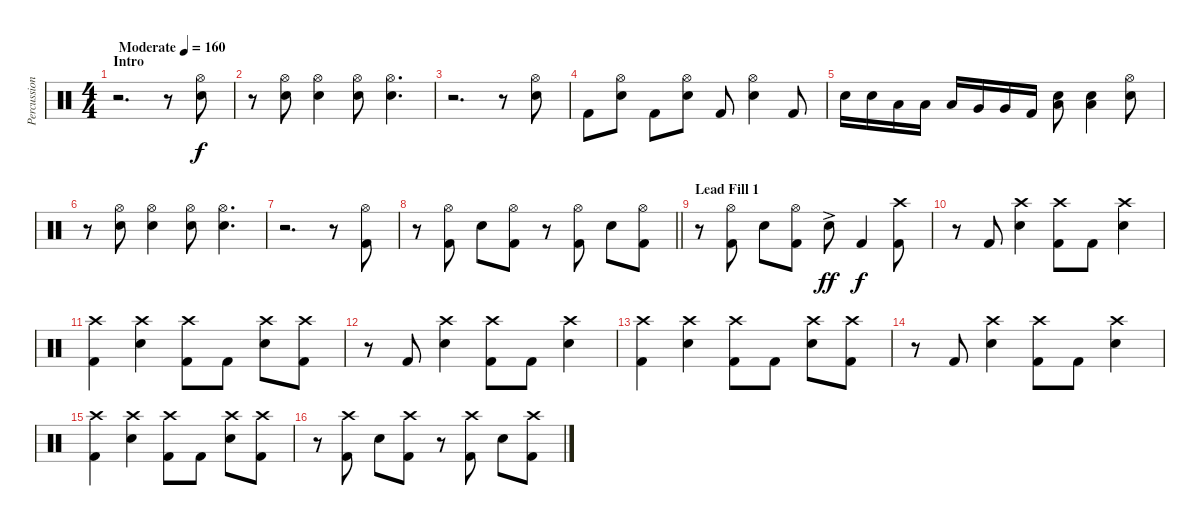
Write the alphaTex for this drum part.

\track ("Percussion" "Percussion") {instrument percussion}
\staff {score}
\articulation defaults
\ts (4 4)
\section ("" "Intro")
\tempo (160 "Moderate")
\clef neutral
\ks c
r.2{d dy f} r.8 ("Hi-Hat (open)" "Electric Snare (hit)").8 |
r.8 ("Hi-Hat (open)" "Electric Snare (hit)").8 ("Hi-Hat (open)" "Electric Snare (hit)").4 ("Hi-Hat (open)" "Electric Snare (hit)").8 ("Hi-Hat (open)" "Electric Snare (hit)").4{d} |
r.2{d} r.8 ("Hi-Hat (open)" "Electric Snare (hit)").8 |
"Kick (hit) 2".8 ("Hi-Hat (open)" "Electric Snare (hit)").8 "Kick (hit) 2".8 ("Hi-Hat (open)" "Electric Snare (hit)").8 "Kick (hit) 2".8 ("Hi-Hat (open)" "Electric Snare (hit)").4 "Kick (hit) 2".8 |
"Electric Snare (hit)".16 "Electric Snare (hit)".16 "Low Tom (hit)".16 "Low Tom (hit)".16 "Low Tom (hit)".16 "Very Low Tom (hit)".16 "Very Low Tom (hit)".16 "Kick (hit) 2".16 ("Electric Snare (hit)" "Low Floor Tom (hit)").8 ("Electric Snare (hit)" "Low Floor Tom (hit)").4 ("Hi-Hat (open)" "Electric Snare (hit)").8 |
r.8 ("Hi-Hat (open)" "Electric Snare (hit)").8 ("Hi-Hat (open)" "Electric Snare (hit)").4 ("Hi-Hat (open)" "Electric Snare (hit)").8 ("Hi-Hat (open)" "Electric Snare (hit)").4{d} |
r.2{d} r.8 ("Hi-Hat (open)" "Kick (hit) 2").8 |
\barLineRight lightlight
r.8 ("Hi-Hat (open)" "Kick (hit) 2").8 "Electric Snare (hit)".8 ("Hi-Hat (open)" "Kick (hit) 2").8 r.8 ("Hi-Hat (open)" "Kick (hit) 2").8 "Electric Snare (hit)".8 ("Hi-Hat (open)" "Kick (hit) 2").8 |
\section ("" "Lead Fill 1")
r.8 ("Hi-Hat (open)" "Kick (hit) 2").8 "Electric Snare (hit)".8 ("Hi-Hat (open)" "Kick (hit) 2").8 "Electric Snare (hit)"{ac}.8{dy ff} "Kick (hit) 2".4{dy f} ("Crash high (hit)" "Kick (hit) 2").8 |
r.8 "Kick (hit) 2".8 ("Crash high (hit)" "Electric Snare (hit)").4 ("Crash high (hit)" "Kick (hit) 2").8 "Kick (hit) 2".8 ("Crash high (hit)" "Electric Snare (hit)").4 |
("Crash high (hit)" "Kick (hit) 2").4 ("Crash high (hit)" "Electric Snare (hit)").4 ("Crash high (hit)" "Kick (hit) 2").8 "Kick (hit) 2".8 ("Crash high (hit)" "Electric Snare (hit)").8 ("Crash high (hit)" "Kick (hit) 2").8 |
r.8 "Kick (hit) 2".8 ("Crash high (hit)" "Electric Snare (hit)").4 ("Crash high (hit)" "Kick (hit) 2").8 "Kick (hit) 2".8 ("Crash high (hit)" "Electric Snare (hit)").4 |
("Crash high (hit)" "Kick (hit) 2").4 ("Crash high (hit)" "Electric Snare (hit)").4 ("Crash high (hit)" "Kick (hit) 2").8 "Kick (hit) 2".8 ("Crash high (hit)" "Electric Snare (hit)").8 ("Crash high (hit)" "Kick (hit) 2").8 |
r.8 "Kick (hit) 2".8 ("Crash high (hit)" "Electric Snare (hit)").4 ("Crash high (hit)" "Kick (hit) 2").8 "Kick (hit) 2".8 ("Crash high (hit)" "Electric Snare (hit)").4 |
("Crash high (hit)" "Kick (hit) 2").4 ("Crash high (hit)" "Electric Snare (hit)").4 ("Crash high (hit)" "Kick (hit) 2").8 "Kick (hit) 2".8 ("Crash high (hit)" "Electric Snare (hit)").8 ("Crash high (hit)" "Kick (hit) 2").8 |
r.8 ("Crash high (hit)" "Kick (hit) 2").8 "Electric Snare (hit)".8 ("Crash high (hit)" "Kick (hit) 2").8 r.8 ("Crash high (hit)" "Kick (hit) 2").8 "Electric Snare (hit)".8 ("Crash high (hit)" "Kick (hit) 2").8
